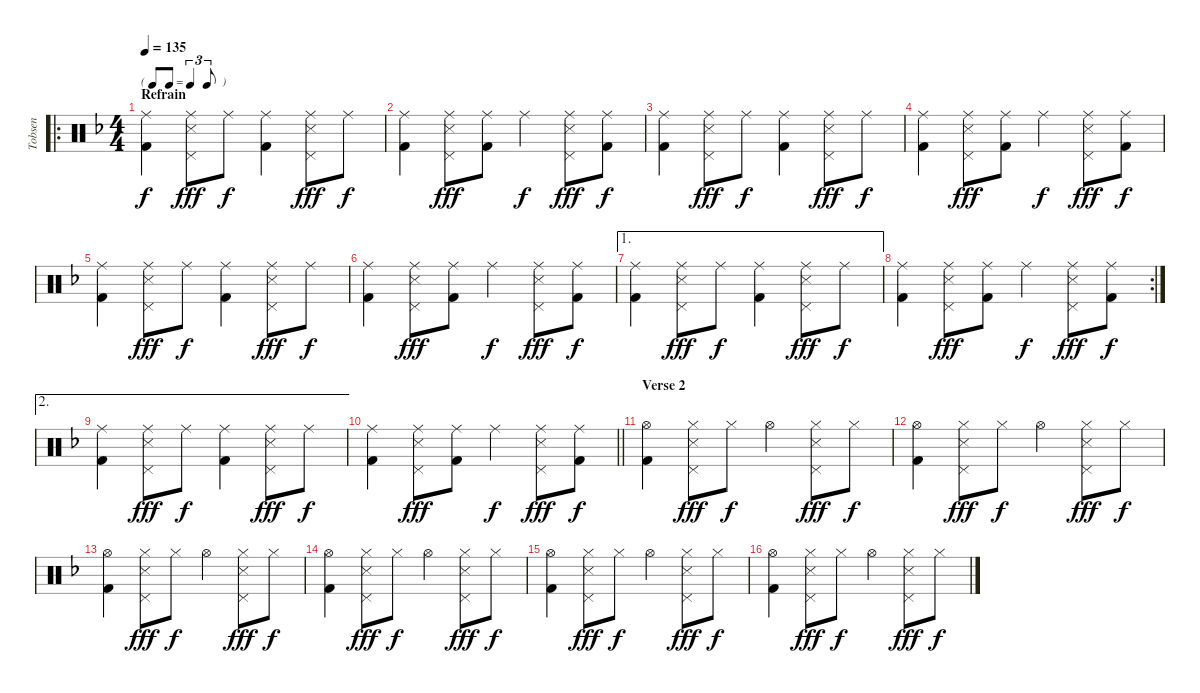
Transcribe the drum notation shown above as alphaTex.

\track ("Tobsen" "Tobsen") {instrument percussion}
\staff {score}
\articulation defaults
\ro
\ts (4 4)
\tf triplet8th
\section ("" "Refrain")
\tempo 135
\clef neutral
\ks f
("Ride (middle)" "Kick (hit) 2").4{dy f} ("Ride (middle)" "Pedal Hi-Hat (hit)" "Snare (side stick) 3").8{dy fff} "Ride (middle)".8{dy f} ("Ride (middle)" "Kick (hit) 2").4 ("Ride (middle)" "Pedal Hi-Hat (hit)" "Snare (side stick) 3").8{dy fff} "Ride (middle)".8{dy f} |
("Ride (middle)" "Kick (hit) 2").4 ("Ride (middle)" "Pedal Hi-Hat (hit)" "Snare (side stick) 3").8{dy fff} ("Ride (middle)" "Kick (hit) 2").8 "Ride (middle)".4{dy f} ("Ride (middle)" "Pedal Hi-Hat (hit)" "Snare (side stick) 3").8{dy fff} ("Ride (middle)" "Kick (hit) 2").8{dy f} |
("Ride (middle)" "Kick (hit) 2").4 ("Ride (middle)" "Pedal Hi-Hat (hit)" "Snare (side stick) 3").8{dy fff} "Ride (middle)".8{dy f} ("Ride (middle)" "Kick (hit) 2").4 ("Ride (middle)" "Pedal Hi-Hat (hit)" "Snare (side stick) 3").8{dy fff} "Ride (middle)".8{dy f} |
("Ride (middle)" "Kick (hit) 2").4 ("Ride (middle)" "Pedal Hi-Hat (hit)" "Snare (side stick) 3").8{dy fff} ("Ride (middle)" "Kick (hit) 2").8 "Ride (middle)".4{dy f} ("Ride (middle)" "Pedal Hi-Hat (hit)" "Snare (side stick) 3").8{dy fff} ("Ride (middle)" "Kick (hit) 2").8{dy f} |
("Ride (middle)" "Kick (hit) 2").4 ("Ride (middle)" "Pedal Hi-Hat (hit)" "Snare (side stick) 3").8{dy fff} "Ride (middle)".8{dy f} ("Ride (middle)" "Kick (hit) 2").4 ("Ride (middle)" "Pedal Hi-Hat (hit)" "Snare (side stick) 3").8{dy fff} "Ride (middle)".8{dy f} |
("Ride (middle)" "Kick (hit) 2").4 ("Ride (middle)" "Pedal Hi-Hat (hit)" "Snare (side stick) 3").8{dy fff} ("Ride (middle)" "Kick (hit) 2").8 "Ride (middle)".4{dy f} ("Ride (middle)" "Pedal Hi-Hat (hit)" "Snare (side stick) 3").8{dy fff} ("Ride (middle)" "Kick (hit) 2").8{dy f} |
\ae 1
("Ride (middle)" "Kick (hit) 2").4 ("Ride (middle)" "Pedal Hi-Hat (hit)" "Snare (side stick) 3").8{dy fff} "Ride (middle)".8{dy f} ("Ride (middle)" "Kick (hit) 2").4 ("Ride (middle)" "Pedal Hi-Hat (hit)" "Snare (side stick) 3").8{dy fff} "Ride (middle)".8{dy f} |
\rc 2
("Ride (middle)" "Kick (hit) 2").4 ("Ride (middle)" "Pedal Hi-Hat (hit)" "Snare (side stick) 3").8{dy fff} ("Ride (middle)" "Kick (hit) 2").8 "Ride (middle)".4{dy f} ("Ride (middle)" "Pedal Hi-Hat (hit)" "Snare (side stick) 3").8{dy fff} ("Ride (middle)" "Kick (hit) 2").8{dy f} |
\ae 2
("Ride (middle)" "Kick (hit) 2").4 ("Ride (middle)" "Pedal Hi-Hat (hit)" "Snare (side stick) 3").8{dy fff} "Ride (middle)".8{dy f} ("Ride (middle)" "Kick (hit) 2").4 ("Ride (middle)" "Pedal Hi-Hat (hit)" "Snare (side stick) 3").8{dy fff} "Ride (middle)".8{dy f} |
\barLineRight lightlight
("Ride (middle)" "Kick (hit) 2").4 ("Ride (middle)" "Pedal Hi-Hat (hit)" "Snare (side stick) 3").8{dy fff} ("Ride (middle)" "Kick (hit) 2").8 "Ride (middle)".4{dy f} ("Ride (middle)" "Pedal Hi-Hat (hit)" "Snare (side stick) 3").8{dy fff} ("Ride (middle)" "Kick (hit) 2").8{dy f} |
\section ("" "Verse 2")
("Hi-Hat (open)" "Kick (hit) 2").4{volume 10} ("Hi-Hat (closed)" "Pedal Hi-Hat (hit)" "Snare (side stick) 3").8{dy fff} "Hi-Hat (closed)".8{dy f} "Hi-Hat (open)".4 ("Hi-Hat (closed)" "Pedal Hi-Hat (hit)" "Snare (side stick) 3").8{dy fff} "Hi-Hat (closed)".8{dy f} |
("Hi-Hat (open)" "Kick (hit) 2").4 ("Hi-Hat (closed)" "Pedal Hi-Hat (hit)" "Snare (side stick) 3").8{dy fff} "Hi-Hat (closed)".8{dy f} "Hi-Hat (open)".4 ("Hi-Hat (closed)" "Pedal Hi-Hat (hit)" "Snare (side stick) 3").8{dy fff} "Hi-Hat (closed)".8{dy f} |
("Hi-Hat (open)" "Kick (hit) 2").4 ("Hi-Hat (closed)" "Pedal Hi-Hat (hit)" "Snare (side stick) 3").8{dy fff} "Hi-Hat (closed)".8{dy f} "Hi-Hat (open)".4 ("Hi-Hat (closed)" "Pedal Hi-Hat (hit)" "Snare (side stick) 3").8{dy fff} "Hi-Hat (closed)".8{dy f} |
("Hi-Hat (open)" "Kick (hit) 2").4 ("Hi-Hat (closed)" "Pedal Hi-Hat (hit)" "Snare (side stick) 3").8{dy fff} "Hi-Hat (closed)".8{dy f} "Hi-Hat (open)".4 ("Hi-Hat (closed)" "Pedal Hi-Hat (hit)" "Snare (side stick) 3").8{dy fff} "Hi-Hat (closed)".8{dy f} |
("Hi-Hat (open)" "Kick (hit) 2").4 ("Hi-Hat (closed)" "Pedal Hi-Hat (hit)" "Snare (side stick) 3").8{dy fff} "Hi-Hat (closed)".8{dy f} "Hi-Hat (open)".4 ("Hi-Hat (closed)" "Pedal Hi-Hat (hit)" "Snare (side stick) 3").8{dy fff} "Hi-Hat (closed)".8{dy f} |
("Hi-Hat (open)" "Kick (hit) 2").4 ("Hi-Hat (closed)" "Pedal Hi-Hat (hit)" "Snare (side stick) 3").8{dy fff} "Hi-Hat (closed)".8{dy f} "Hi-Hat (open)".4 ("Hi-Hat (closed)" "Pedal Hi-Hat (hit)" "Snare (side stick) 3").8{dy fff} "Hi-Hat (closed)".8{dy f}
